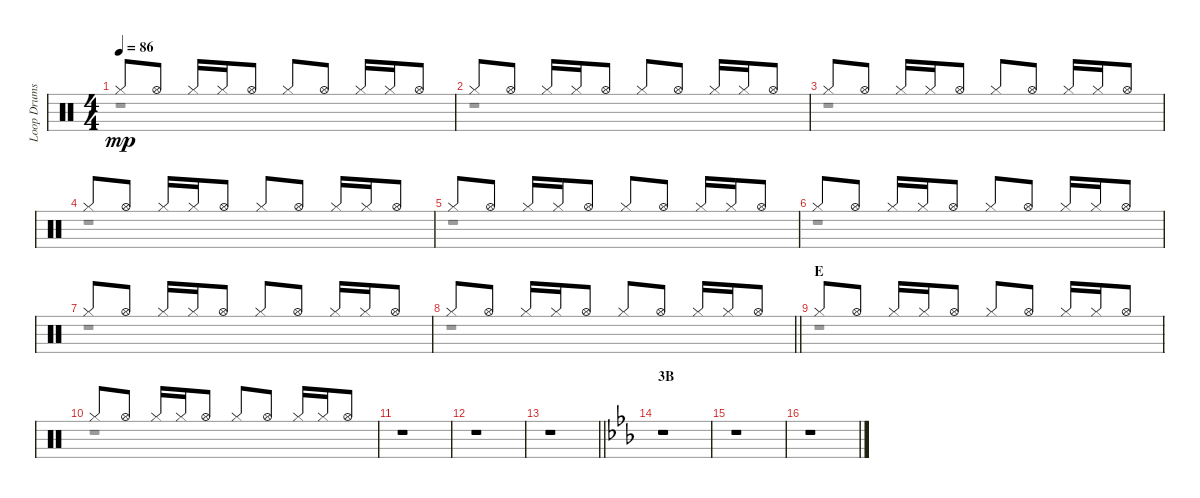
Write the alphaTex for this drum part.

\track ("Loop Drums II" "Loop Drums") {instrument percussion}
\staff {score}
\articulation defaults
\voice
\ts (4 4)
\tempo 86
\clef neutral
\ks c "Hi-Hat (closed)".8{dy mp} "Hi-Hat (open)".8 "Hi-Hat (closed)".16 "Hi-Hat (closed)".16 "Hi-Hat (open)".8 "Hi-Hat (closed)".8 "Hi-Hat (open)".8 "Hi-Hat (closed)".16 "Hi-Hat (closed)".16 "Hi-Hat (open)".8
|
"Hi-Hat (closed)".8 "Hi-Hat (open)".8 "Hi-Hat (closed)".16 "Hi-Hat (closed)".16 "Hi-Hat (open)".8 "Hi-Hat (closed)".8 "Hi-Hat (open)".8 "Hi-Hat (closed)".16 "Hi-Hat (closed)".16 "Hi-Hat (open)".8 |
"Hi-Hat (closed)".8 "Hi-Hat (open)".8 "Hi-Hat (closed)".16 "Hi-Hat (closed)".16 "Hi-Hat (open)".8 "Hi-Hat (closed)".8 "Hi-Hat (open)".8 "Hi-Hat (closed)".16 "Hi-Hat (closed)".16 "Hi-Hat (open)".8 |
"Hi-Hat (closed)".8 "Hi-Hat (open)".8 "Hi-Hat (closed)".16 "Hi-Hat (closed)".16 "Hi-Hat (open)".8 "Hi-Hat (closed)".8 "Hi-Hat (open)".8 "Hi-Hat (closed)".16 "Hi-Hat (closed)".16 "Hi-Hat (open)".8 |
"Hi-Hat (closed)".8 "Hi-Hat (open)".8 "Hi-Hat (closed)".16 "Hi-Hat (closed)".16 "Hi-Hat (open)".8 "Hi-Hat (closed)".8 "Hi-Hat (open)".8 "Hi-Hat (closed)".16 "Hi-Hat (closed)".16 "Hi-Hat (open)".8 |
"Hi-Hat (closed)".8 "Hi-Hat (open)".8 "Hi-Hat (closed)".16 "Hi-Hat (closed)".16 "Hi-Hat (open)".8 "Hi-Hat (closed)".8 "Hi-Hat (open)".8 "Hi-Hat (closed)".16 "Hi-Hat (closed)".16 "Hi-Hat (open)".8 |
"Hi-Hat (closed)".8 "Hi-Hat (open)".8 "Hi-Hat (closed)".16 "Hi-Hat (closed)".16 "Hi-Hat (open)".8 "Hi-Hat (closed)".8 "Hi-Hat (open)".8 "Hi-Hat (closed)".16 "Hi-Hat (closed)".16 "Hi-Hat (open)".8 |
\barLineRight lightlight "Hi-Hat (closed)".8 "Hi-Hat (open)".8 "Hi-Hat (closed)".16 "Hi-Hat (closed)".16 "Hi-Hat (open)".8 "Hi-Hat (closed)".8 "Hi-Hat (open)".8 "Hi-Hat (closed)".16 "Hi-Hat (closed)".16 "Hi-Hat (open)".8
|
\section ("" "E")
"Hi-Hat (closed)".8 "Hi-Hat (open)".8 "Hi-Hat (closed)".16 "Hi-Hat (closed)".16 "Hi-Hat (open)".8 "Hi-Hat (closed)".8 "Hi-Hat (open)".8 "Hi-Hat (closed)".16 "Hi-Hat (closed)".16 "Hi-Hat (open)".8 |
"Hi-Hat (closed)".8 "Hi-Hat (open)".8 "Hi-Hat (closed)".16 "Hi-Hat (closed)".16 "Hi-Hat (open)".8 "Hi-Hat (closed)".8 "Hi-Hat (open)".8 "Hi-Hat (closed)".16 "Hi-Hat (closed)".16 "Hi-Hat (open)".8 |
r.1 |
r.1 |
\barLineRight lightlight
r.1 |
\section ("" "3B")
\ks eb
r.1 |
r.1 |
r.1
\voice
\clef neutral
\ottava regular
\simile none
\ks c
r.1{dy mp} |
r.1 |
r.1 |
r.1 |
r.1 |
r.1 |
r.1 |
\barLineRight lightlight
r.1 |
r.1 |
r.1 |
r.1 |
r.1 |
\barLineRight lightlight
r.1 |
\ks eb
r.1 |
r.1 |
r.1
